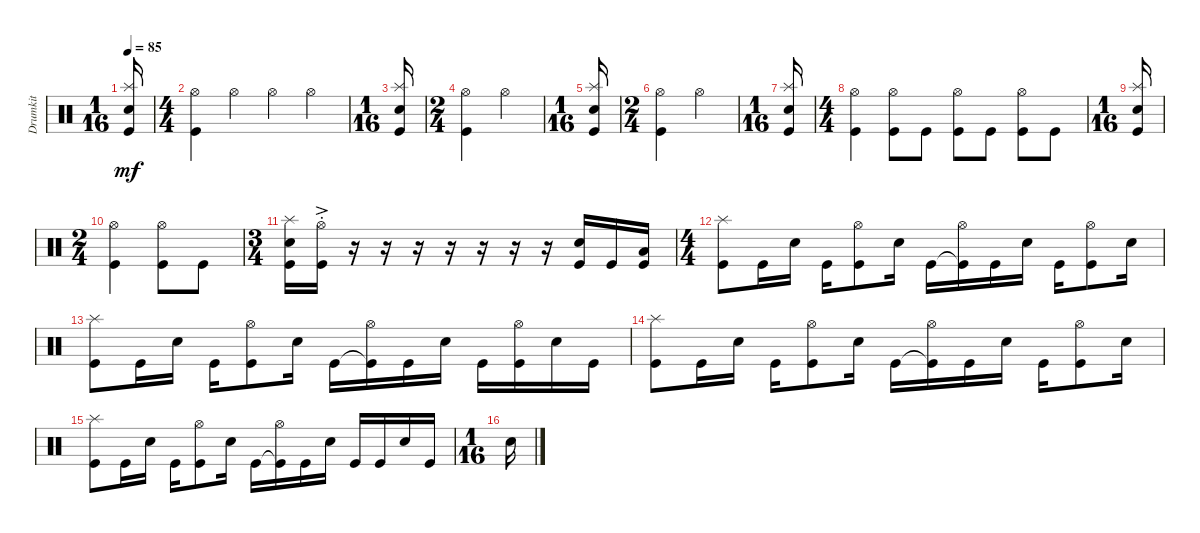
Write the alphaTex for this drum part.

\track ("Drumkit" "Drumkit") {instrument percussion}
\staff {score}
\articulation defaults
\ts (1 16)
\tempo 85
\clef neutral
\ks c
("Snare (hit) 2" "Splash (hit)" "Kick (hit)").16{dy mf} |
\ts (4 4)
("Kick (hit)" "Hi-Hat (open)").4 "Hi-Hat (open)".4 "Hi-Hat (open)".4 "Hi-Hat (open)".4 |
\ts (1 16)
("Snare (hit) 2" "Splash (hit)" "Kick (hit)").16 |
\ts (2 4)
("Kick (hit)" "Hi-Hat (open)").4 "Hi-Hat (open)".4 |
\ts (1 16)
("Snare (hit) 2" "Splash (hit)" "Kick (hit)").16 |
\ts (2 4)
("Kick (hit)" "Hi-Hat (open)").4 "Hi-Hat (open)".4 |
\ts (1 16)
("Snare (hit) 2" "Splash (hit)" "Kick (hit)").16 |
\ts (4 4)
("Kick (hit)" "Hi-Hat (open)").4 ("Kick (hit)" "Hi-Hat (open)").8 "Kick (hit)".8 ("Kick (hit)" "Hi-Hat (open)").8 "Kick (hit)".8 ("Kick (hit)" "Hi-Hat (open)").8 "Kick (hit)".8 |
\ts (1 16)
("Snare (hit) 2" "Splash (hit)" "Kick (hit)").16 |
\ts (2 4)
("Kick (hit)" "Hi-Hat (open)").4 ("Kick (hit)" "Hi-Hat (open)").8 "Kick (hit)".8 |
\ts (3 4)
("Snare (hit) 2" "Splash (hit)" "Kick (hit)").16 ("Hi-Hat (open)"{ac st} "Kick (hit)").16 r.16 r.16 r.16 r.16 r.16 r.16 r.16 ("Snare (hit) 2" "Kick (hit)").16 "Kick (hit)".16 ("Kick (hit)" "Low Floor Tom (hit)").16 |
\ts (4 4)
("Kick (hit)" "Splash (hit)").8 "Kick (hit)".16 "Snare (hit) 2".16 "Kick (hit)".16 ("Kick (hit)" "Hi-Hat (open)").8 "Snare (hit) 2".16 "Kick (hit)".16 ("Kick (hit)"{t} "Hi-Hat (open)").16 "Kick (hit)".16 "Snare (hit) 2".16 "Kick (hit)".16 ("Kick (hit)" "Hi-Hat (open)").8 "Snare (hit) 2".16 |
("Kick (hit)" "Splash (hit)").8 "Kick (hit)".16 "Snare (hit) 2".16 "Kick (hit)".16 ("Kick (hit)" "Hi-Hat (open)").8 "Snare (hit) 2".16 "Kick (hit)".16 ("Kick (hit)"{t} "Hi-Hat (open)").16 "Kick (hit)".16 "Snare (hit) 2".16 "Kick (hit)".16 ("Kick (hit)" "Hi-Hat (open)").16 "Snare (hit) 2".16 "Kick (hit)".16 |
("Kick (hit)" "Splash (hit)").8 "Kick (hit)".16 "Snare (hit) 2".16 "Kick (hit)".16 ("Kick (hit)" "Hi-Hat (open)").8 "Snare (hit) 2".16 "Kick (hit)".16 ("Kick (hit)"{t} "Hi-Hat (open)").16 "Kick (hit)".16 "Snare (hit) 2".16 "Kick (hit)".16 ("Kick (hit)" "Hi-Hat (open)").8 "Snare (hit) 2".16 |
("Kick (hit)" "Splash (hit)").8 "Kick (hit)".16 "Snare (hit) 2".16 "Kick (hit)".16 ("Kick (hit)" "Hi-Hat (open)").8 "Snare (hit) 2".16 "Kick (hit)".16 ("Kick (hit)"{t} "Hi-Hat (open)").16 "Kick (hit)".16 "Snare (hit) 2".16 "Kick (hit)".16 "Kick (hit)".16 "Snare (hit) 2".16 "Kick (hit)".16 |
\ts (1 16)
"Snare (hit) 2".16
